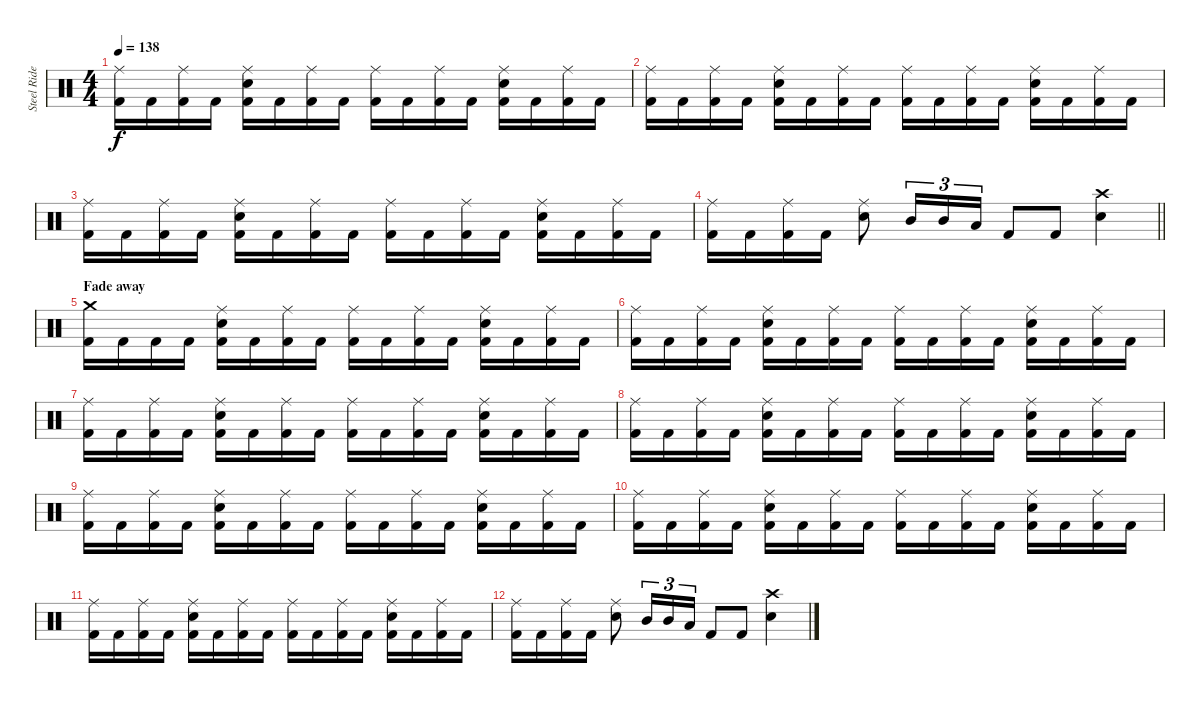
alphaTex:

\track ("Steel Rider" "Steel Ride") {instrument percussion}
\staff {score}
\articulation defaults
\ts (4 4)
\tempo 138
\clef neutral
\ks c
("Ride (middle)" "Kick (hit) 2").16{dy f} "Kick (hit) 2".16 ("Ride (middle)" "Kick (hit) 2").16 "Kick (hit) 2".16 ("Ride (middle)" "Electric Snare (hit)" "Kick (hit) 2").16 "Kick (hit) 2".16 ("Ride (middle)" "Kick (hit) 2").16 "Kick (hit) 2".16 ("Ride (middle)" "Kick (hit) 2").16 "Kick (hit) 2".16 ("Ride (middle)" "Kick (hit) 2").16 "Kick (hit) 2".16 ("Ride (middle)" "Electric Snare (hit)" "Kick (hit) 2").16 "Kick (hit) 2".16 ("Ride (middle)" "Kick (hit) 2").16 "Kick (hit) 2".16 |
("Ride (middle)" "Kick (hit) 2").16 "Kick (hit) 2".16 ("Ride (middle)" "Kick (hit) 2").16 "Kick (hit) 2".16 ("Ride (middle)" "Electric Snare (hit)" "Kick (hit) 2").16 "Kick (hit) 2".16 ("Ride (middle)" "Kick (hit) 2").16 "Kick (hit) 2".16 ("Ride (middle)" "Kick (hit) 2").16 "Kick (hit) 2".16 ("Ride (middle)" "Kick (hit) 2").16 "Kick (hit) 2".16 ("Ride (middle)" "Electric Snare (hit)" "Kick (hit) 2").16 "Kick (hit) 2".16 ("Ride (middle)" "Kick (hit) 2").16 "Kick (hit) 2".16 |
("Ride (middle)" "Kick (hit) 2").16 "Kick (hit) 2".16 ("Ride (middle)" "Kick (hit) 2").16 "Kick (hit) 2".16 ("Ride (middle)" "Electric Snare (hit)" "Kick (hit) 2").16 "Kick (hit) 2".16 ("Ride (middle)" "Kick (hit) 2").16 "Kick (hit) 2".16 ("Ride (middle)" "Kick (hit) 2").16 "Kick (hit) 2".16 ("Ride (middle)" "Kick (hit) 2").16 "Kick (hit) 2".16 ("Ride (middle)" "Electric Snare (hit)" "Kick (hit) 2").16 "Kick (hit) 2".16 ("Ride (middle)" "Kick (hit) 2").16 "Kick (hit) 2".16 |
\barLineRight lightlight
("Ride (middle)" "Kick (hit) 2").16 "Kick (hit) 2".16 ("Ride (middle)" "Kick (hit) 2").16 "Kick (hit) 2".16 ("Ride (middle)" "Electric Snare (hit)").8 "Mid Tom (hit)".16{tu (3 2)} "Mid Tom (hit)".16{tu (3 2)} "Low Tom (hit)".16{tu (3 2)} "Kick (hit) 2".8 "Kick (hit) 2".8 ("Crash high (hit)" "Electric Snare (hit)").4 |
\section ("" "Fade away")
("Crash medium (hit)" "Kick (hit) 2").16 "Kick (hit) 2".16 "Kick (hit) 2".16 "Kick (hit) 2".16 ("Ride (middle)" "Electric Snare (hit)" "Kick (hit) 2").16 "Kick (hit) 2".16 ("Ride (middle)" "Kick (hit) 2").16 "Kick (hit) 2".16 ("Ride (middle)" "Kick (hit) 2").16 "Kick (hit) 2".16 ("Ride (middle)" "Kick (hit) 2").16 "Kick (hit) 2".16 ("Ride (middle)" "Electric Snare (hit)" "Kick (hit) 2").16 "Kick (hit) 2".16 ("Ride (middle)" "Kick (hit) 2").16 "Kick (hit) 2".16 |
("Ride (middle)" "Kick (hit) 2").16 "Kick (hit) 2".16 ("Ride (middle)" "Kick (hit) 2").16 "Kick (hit) 2".16 ("Ride (middle)" "Electric Snare (hit)" "Kick (hit) 2").16 "Kick (hit) 2".16 ("Ride (middle)" "Kick (hit) 2").16 "Kick (hit) 2".16 ("Ride (middle)" "Kick (hit) 2").16 "Kick (hit) 2".16 ("Ride (middle)" "Kick (hit) 2").16 "Kick (hit) 2".16 ("Ride (middle)" "Electric Snare (hit)" "Kick (hit) 2").16 "Kick (hit) 2".16 ("Ride (middle)" "Kick (hit) 2").16 "Kick (hit) 2".16 |
("Ride (middle)" "Kick (hit) 2").16 "Kick (hit) 2".16 ("Ride (middle)" "Kick (hit) 2").16 "Kick (hit) 2".16 ("Ride (middle)" "Electric Snare (hit)" "Kick (hit) 2").16 "Kick (hit) 2".16 ("Ride (middle)" "Kick (hit) 2").16 "Kick (hit) 2".16 ("Ride (middle)" "Kick (hit) 2").16 "Kick (hit) 2".16 ("Ride (middle)" "Kick (hit) 2").16 "Kick (hit) 2".16 ("Ride (middle)" "Electric Snare (hit)" "Kick (hit) 2").16 "Kick (hit) 2".16 ("Ride (middle)" "Kick (hit) 2").16 "Kick (hit) 2".16 |
("Ride (middle)" "Kick (hit) 2").16 "Kick (hit) 2".16 ("Ride (middle)" "Kick (hit) 2").16 "Kick (hit) 2".16 ("Ride (middle)" "Electric Snare (hit)" "Kick (hit) 2").16 "Kick (hit) 2".16 ("Ride (middle)" "Kick (hit) 2").16 "Kick (hit) 2".16 ("Ride (middle)" "Kick (hit) 2").16 "Kick (hit) 2".16 ("Ride (middle)" "Kick (hit) 2").16 "Kick (hit) 2".16 ("Ride (middle)" "Electric Snare (hit)" "Kick (hit) 2").16 "Kick (hit) 2".16 ("Ride (middle)" "Kick (hit) 2").16 "Kick (hit) 2".16 |
("Ride (middle)" "Kick (hit) 2").16 "Kick (hit) 2".16 ("Ride (middle)" "Kick (hit) 2").16 "Kick (hit) 2".16 ("Ride (middle)" "Electric Snare (hit)" "Kick (hit) 2").16 "Kick (hit) 2".16 ("Ride (middle)" "Kick (hit) 2").16 "Kick (hit) 2".16 ("Ride (middle)" "Kick (hit) 2").16 "Kick (hit) 2".16 ("Ride (middle)" "Kick (hit) 2").16 "Kick (hit) 2".16 ("Ride (middle)" "Electric Snare (hit)" "Kick (hit) 2").16 "Kick (hit) 2".16 ("Ride (middle)" "Kick (hit) 2").16 "Kick (hit) 2".16 |
("Ride (middle)" "Kick (hit) 2").16 "Kick (hit) 2".16 ("Ride (middle)" "Kick (hit) 2").16 "Kick (hit) 2".16 ("Ride (middle)" "Electric Snare (hit)" "Kick (hit) 2").16 "Kick (hit) 2".16 ("Ride (middle)" "Kick (hit) 2").16 "Kick (hit) 2".16 ("Ride (middle)" "Kick (hit) 2").16 "Kick (hit) 2".16 ("Ride (middle)" "Kick (hit) 2").16 "Kick (hit) 2".16 ("Ride (middle)" "Electric Snare (hit)" "Kick (hit) 2").16 "Kick (hit) 2".16 ("Ride (middle)" "Kick (hit) 2").16 "Kick (hit) 2".16 |
("Ride (middle)" "Kick (hit) 2").16 "Kick (hit) 2".16 ("Ride (middle)" "Kick (hit) 2").16 "Kick (hit) 2".16 ("Ride (middle)" "Electric Snare (hit)" "Kick (hit) 2").16 "Kick (hit) 2".16 ("Ride (middle)" "Kick (hit) 2").16 "Kick (hit) 2".16 ("Ride (middle)" "Kick (hit) 2").16 "Kick (hit) 2".16 ("Ride (middle)" "Kick (hit) 2").16 "Kick (hit) 2".16 ("Ride (middle)" "Electric Snare (hit)" "Kick (hit) 2").16 "Kick (hit) 2".16 ("Ride (middle)" "Kick (hit) 2").16 "Kick (hit) 2".16 |
("Ride (middle)" "Kick (hit) 2").16 "Kick (hit) 2".16 ("Ride (middle)" "Kick (hit) 2").16 "Kick (hit) 2".16 ("Ride (middle)" "Electric Snare (hit)").8 "Mid Tom (hit)".16{tu (3 2)} "Mid Tom (hit)".16{tu (3 2)} "Low Tom (hit)".16{tu (3 2)} "Kick (hit) 2".8 "Kick (hit) 2".8 ("Crash high (hit)" "Electric Snare (hit)").4
